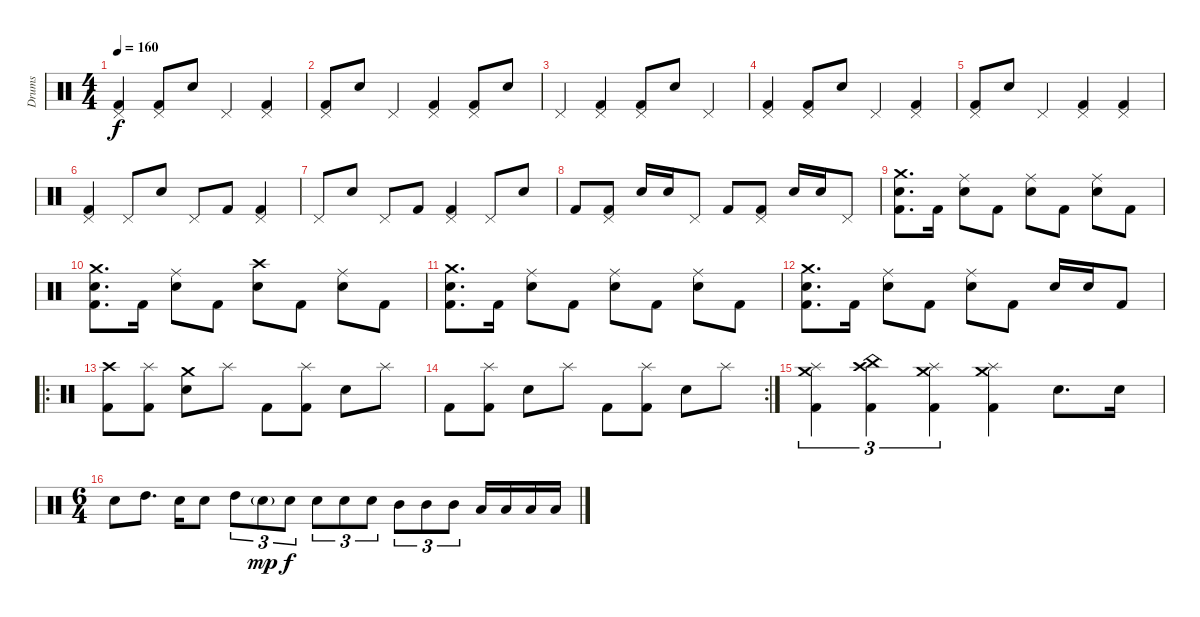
\track ("Drums" "Drums") {instrument percussion}
\staff {score}
\articulation defaults
\ts (4 4)
\tempo 160
\clef neutral
\ks c
("Pedal Hi-Hat (hit)" "Kick (hit) 2").4{dy f} ("Pedal Hi-Hat (hit)" "Kick (hit) 2").8 "Snare (hit) 2".8 "Pedal Hi-Hat (hit)".4 ("Pedal Hi-Hat (hit)" "Kick (hit) 2").4 |
("Pedal Hi-Hat (hit)" "Kick (hit) 2").8 "Snare (hit) 2".8 "Pedal Hi-Hat (hit)".4 ("Pedal Hi-Hat (hit)" "Kick (hit) 2").4 ("Pedal Hi-Hat (hit)" "Kick (hit) 2").8 "Snare (hit) 2".8 |
"Pedal Hi-Hat (hit)".4 ("Pedal Hi-Hat (hit)" "Kick (hit) 2").4 ("Pedal Hi-Hat (hit)" "Kick (hit) 2").8 "Snare (hit) 2".8 "Pedal Hi-Hat (hit)".4 |
("Pedal Hi-Hat (hit)" "Kick (hit) 2").4 ("Pedal Hi-Hat (hit)" "Kick (hit) 2").8 "Snare (hit) 2".8 "Pedal Hi-Hat (hit)".4 ("Pedal Hi-Hat (hit)" "Kick (hit) 2").4 |
("Pedal Hi-Hat (hit)" "Kick (hit) 2").8 "Snare (hit) 2".8 "Pedal Hi-Hat (hit)".4 ("Pedal Hi-Hat (hit)" "Kick (hit) 2").4 ("Pedal Hi-Hat (hit)" "Kick (hit) 2").4 |
("Pedal Hi-Hat (hit)" "Kick (hit) 2").4 "Pedal Hi-Hat (hit)".8 "Snare (hit) 2".8 "Pedal Hi-Hat (hit)".8 "Kick (hit) 2".8 ("Pedal Hi-Hat (hit)" "Kick (hit) 2").4 |
"Pedal Hi-Hat (hit)".8 "Snare (hit) 2".8 "Pedal Hi-Hat (hit)".8 "Kick (hit) 2".8 ("Pedal Hi-Hat (hit)" "Kick (hit) 2").4 "Pedal Hi-Hat (hit)".8 "Snare (hit) 2".8 |
"Kick (hit) 2".8 ("Pedal Hi-Hat (hit)" "Kick (hit) 2").8 "Snare (hit) 2".16 "Snare (hit) 2".16 "Pedal Hi-Hat (hit)".8 "Kick (hit) 2".8 ("Pedal Hi-Hat (hit)" "Kick (hit) 2").8 "Snare (hit) 2".16 "Snare (hit) 2".16 "Pedal Hi-Hat (hit)".8 |
("Crash medium (hit)" "Snare (hit) 2" "Kick (hit) 2").8{d} "Kick (hit) 2".16 ("Ride (middle)" "Snare (hit) 2").8 "Kick (hit) 2".8 ("Ride (middle)" "Snare (hit) 2").8 "Kick (hit) 2".8 ("Ride (middle)" "Snare (hit) 2").8 "Kick (hit) 2".8 |
("Crash medium (hit)" "Snare (hit) 2" "Kick (hit) 2").8{d} "Kick (hit) 2".16 ("Ride (middle)" "Snare (hit) 2").8 "Kick (hit) 2".8 ("Crash high (hit)" "Snare (hit) 2").8 "Kick (hit) 2".8 ("Ride (middle)" "Snare (hit) 2").8 "Kick (hit) 2".8 |
("Crash medium (hit)" "Snare (hit) 2" "Kick (hit) 2").8{d} "Kick (hit) 2".16 ("Ride (middle)" "Snare (hit) 2").8 "Kick (hit) 2".8 ("Ride (middle)" "Snare (hit) 2").8 "Kick (hit) 2".8 ("Ride (middle)" "Snare (hit) 2").8 "Kick (hit) 2".8 |
("Crash medium (hit)" "Snare (hit) 2" "Kick (hit) 2").8{d} "Kick (hit) 2".16 ("Ride (middle)" "Snare (hit) 2").8 "Kick (hit) 2".8 ("Ride (middle)" "Snare (hit) 2").8 "Kick (hit) 2".8 "Snare (hit) 2".16 "Snare (hit) 2".16 "Kick (hit) 2".8 |
\ro
("Crash high (hit)" "Kick (hit) 2").8 ("Splash (hit)" "Kick (hit) 2").8 ("Crash medium (hit)" "Snare (hit) 2").8 "Splash (hit)".8 "Kick (hit) 2".8 ("Splash (hit)" "Kick (hit) 2").8 "Snare (hit) 2".8 "Splash (hit)".8 |
\rc 2 "Kick (hit) 2".8
("Splash (hit)" "Kick (hit) 2").8 "Snare (hit) 2".8 "Splash (hit)".8 "Kick (hit) 2".8 ("Splash (hit)" "Kick (hit) 2").8 "Snare (hit) 2".8 "Splash (hit)".8 |
("Crash medium (hit)" "Splash (hit)" "Kick (hit) 2").4{tu (3 2)} ("Crash high (hit)" "China (hit)" "Kick (hit) 2").4{tu (3 2)} ("Crash medium (hit)" "Splash (hit)" "Kick (hit) 2").4{tu (3 2)} ("Crash medium (hit)" "Splash (hit)" "Kick (hit) 2").4 "Snare (hit) 2".8{d} "Snare (hit) 2".16 |
\ts (6 4)
"Snare (hit) 2".8 "High Tom (hit)".8{d} "Snare (hit) 2".16 "Snare (hit) 2".8 "High Tom (hit)".8{tu (3 2)} "Snare (hit) 2"{g}.8{tu (3 2) dy mp} "Snare (hit) 2".8{tu (3 2) dy f} "Snare (hit) 2".8{tu (3 2)} "Snare (hit) 2".8{tu (3 2)} "Snare (hit) 2".8{tu (3 2)} "Mid Tom (hit)".8{tu (3 2)} "Mid Tom (hit)".8{tu (3 2)} "Mid Tom (hit)".8{tu (3 2)} "Low Tom (hit)".16 "Low Tom (hit)".16 "Low Tom (hit)".16 "Low Tom (hit)".16
